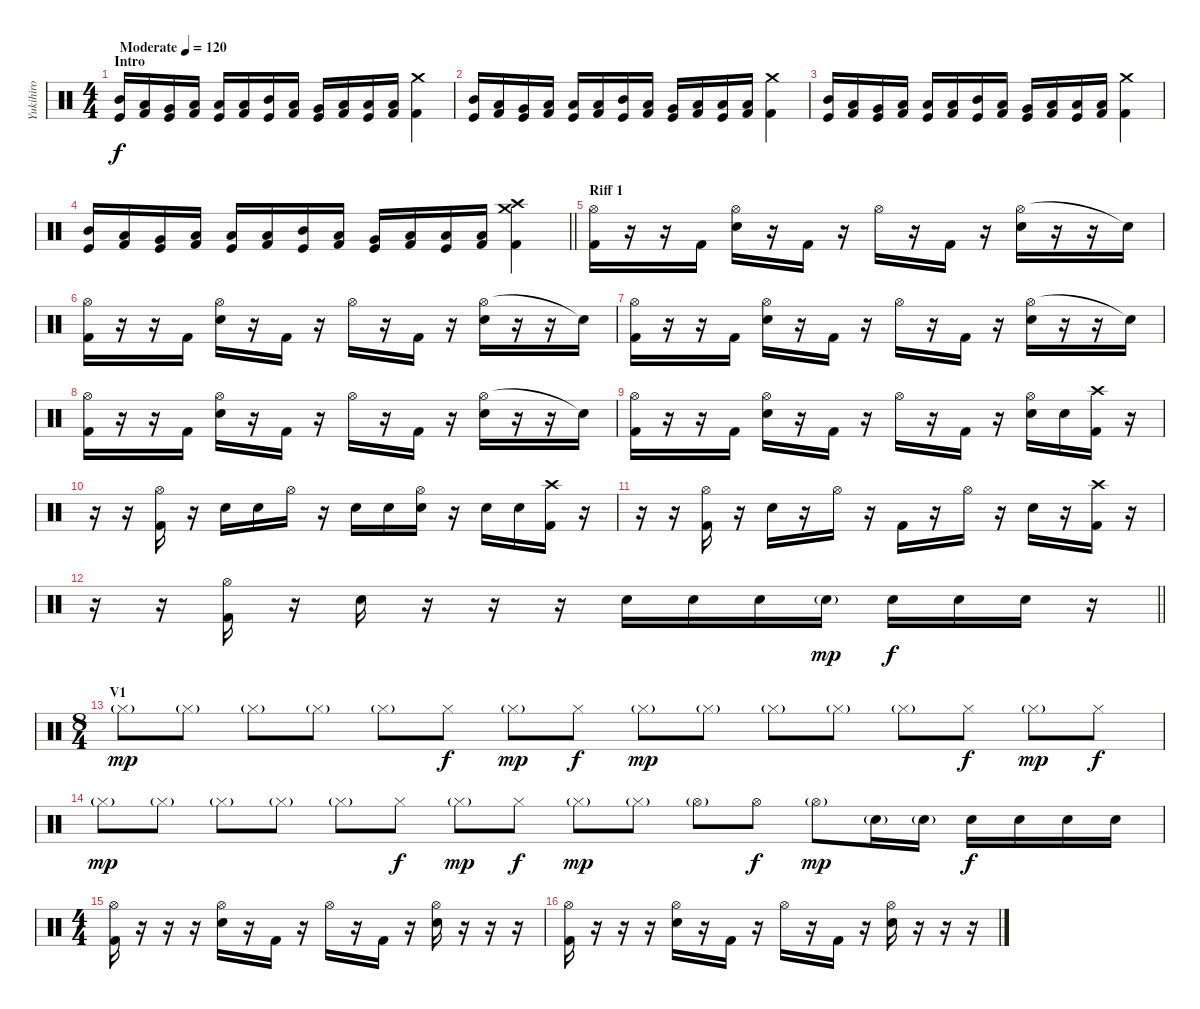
\track ("Yukihiro" "Yukihiro") {instrument percussion}
\staff {score}
\articulation defaults
\ts (4 4)
\section ("" "Intro")
\tempo (120 "Moderate")
\clef neutral
\ks c
("Mid Tom (hit)" "Kick (hit)").16{dy f} ("Low Tom (hit)" "Kick (hit) 2").16 ("Very Low Tom (hit)" "Kick (hit)").16 ("Low Floor Tom (hit)" "Kick (hit) 2").16 ("Low Floor Tom (hit)" "Kick (hit)").16 ("Low Floor Tom (hit)" "Kick (hit) 2").16 ("Mid Tom (hit)" "Kick (hit)").16 ("Low Tom (hit)" "Kick (hit) 2").16 ("Very Low Tom (hit)" "Kick (hit)").16 ("Low Floor Tom (hit)" "Kick (hit) 2").16 ("Low Floor Tom (hit)" "Kick (hit)").16 ("Low Floor Tom (hit)" "Kick (hit) 2").16 ("Crash medium (hit)" "Kick (hit) 2").4 |
("Mid Tom (hit)" "Kick (hit)").16 ("Low Tom (hit)" "Kick (hit) 2").16 ("Very Low Tom (hit)" "Kick (hit)").16 ("Low Floor Tom (hit)" "Kick (hit) 2").16 ("Low Floor Tom (hit)" "Kick (hit)").16 ("Low Floor Tom (hit)" "Kick (hit) 2").16 ("Mid Tom (hit)" "Kick (hit)").16 ("Low Tom (hit)" "Kick (hit) 2").16 ("Very Low Tom (hit)" "Kick (hit)").16 ("Low Floor Tom (hit)" "Kick (hit) 2").16 ("Low Floor Tom (hit)" "Kick (hit)").16 ("Low Floor Tom (hit)" "Kick (hit) 2").16 ("Crash medium (hit)" "Kick (hit) 2").4 |
("Mid Tom (hit)" "Kick (hit)").16 ("Low Tom (hit)" "Kick (hit) 2").16 ("Very Low Tom (hit)" "Kick (hit)").16 ("Low Floor Tom (hit)" "Kick (hit) 2").16 ("Low Floor Tom (hit)" "Kick (hit)").16 ("Low Floor Tom (hit)" "Kick (hit) 2").16 ("Mid Tom (hit)" "Kick (hit)").16 ("Low Tom (hit)" "Kick (hit) 2").16 ("Very Low Tom (hit)" "Kick (hit)").16 ("Low Floor Tom (hit)" "Kick (hit) 2").16 ("Low Floor Tom (hit)" "Kick (hit)").16 ("Low Floor Tom (hit)" "Kick (hit) 2").16 ("Crash medium (hit)" "Kick (hit) 2").4 |
\barLineRight lightlight
("Mid Tom (hit)" "Kick (hit)").16 ("Low Tom (hit)" "Kick (hit) 2").16 ("Very Low Tom (hit)" "Kick (hit)").16 ("Low Floor Tom (hit)" "Kick (hit) 2").16 ("Low Floor Tom (hit)" "Kick (hit)").16 ("Low Floor Tom (hit)" "Kick (hit) 2").16 ("Mid Tom (hit)" "Kick (hit)").16 ("Low Tom (hit)" "Kick (hit) 2").16 ("Very Low Tom (hit)" "Kick (hit)").16 ("Low Floor Tom (hit)" "Kick (hit) 2").16 ("Low Floor Tom (hit)" "Kick (hit)").16 ("Low Floor Tom (hit)" "Kick (hit) 2").16 ("Crash high (hit)" "Crash medium (hit)" "Kick (hit) 2").4 |
\section ("" "Riff 1")
("Hi-Hat (open)" "Kick (hit) 2").16 r.16 r.16 "Kick (hit) 2".16 ("Hi-Hat (open)" "Snare (hit) 2").16 r.16 "Kick (hit) 2".16 r.16 "Hi-Hat (open)".16 r.16 "Kick (hit) 2".16 r.16 ("Hi-Hat (open)" "Snare (hit) 2").16 r.16 r.16 "Snare (hit)"{t}.16 |
("Hi-Hat (open)" "Kick (hit) 2").16 r.16 r.16 "Kick (hit) 2".16 ("Hi-Hat (open)" "Snare (hit) 2").16 r.16 "Kick (hit) 2".16 r.16 "Hi-Hat (open)".16 r.16 "Kick (hit) 2".16 r.16 ("Hi-Hat (open)" "Snare (hit) 2").16 r.16 r.16 "Snare (hit)"{t}.16 |
("Hi-Hat (open)" "Kick (hit) 2").16 r.16 r.16 "Kick (hit) 2".16 ("Hi-Hat (open)" "Snare (hit) 2").16 r.16 "Kick (hit) 2".16 r.16 "Hi-Hat (open)".16 r.16 "Kick (hit) 2".16 r.16 ("Hi-Hat (open)" "Snare (hit) 2").16 r.16 r.16 "Snare (hit)"{t}.16 |
("Hi-Hat (open)" "Kick (hit) 2").16 r.16 r.16 "Kick (hit) 2".16 ("Hi-Hat (open)" "Snare (hit) 2").16 r.16 "Kick (hit) 2".16 r.16 "Hi-Hat (open)".16 r.16 "Kick (hit) 2".16 r.16 ("Hi-Hat (open)" "Snare (hit) 2").16 r.16 r.16 "Snare (hit)"{t}.16 |
("Hi-Hat (open)" "Kick (hit) 2").16 r.16 r.16 "Kick (hit) 2".16 ("Hi-Hat (open)" "Snare (hit) 2").16 r.16 "Kick (hit) 2".16 r.16 "Hi-Hat (open)".16 r.16 "Kick (hit) 2".16 r.16 ("Hi-Hat (open)" "Snare (hit) 2").16 "Snare (hit) 2".16 ("Crash high (hit)" "Kick (hit) 2").16 r.16 |
r.16 r.16 ("Hi-Hat (open)" "Kick (hit) 2").16 r.16 "Snare (hit) 2".16 "Snare (hit) 2".16 "Hi-Hat (open)".16 r.16 "Snare (hit) 2".16 "Snare (hit) 2".16 ("Hi-Hat (open)" "Snare (hit) 2").16 r.16 "Snare (hit) 2".16 "Snare (hit) 2".16 ("Crash high (hit)" "Kick (hit) 2").16 r.16 |
r.16 r.16 ("Hi-Hat (open)" "Kick (hit) 2").16 r.16 "Snare (hit) 2".16 r.16 "Hi-Hat (open)".16 r.16 "Kick (hit) 2".16 r.16 "Hi-Hat (open)".16 r.16 "Snare (hit) 2".16 r.16 ("Crash high (hit)" "Kick (hit) 2").16 r.16 |
\barLineRight lightlight
r.16 r.16 ("Hi-Hat (open)" "Kick (hit) 2").16 r.16 "Snare (hit) 2".16 r.16 r.16 r.16 "Snare (hit) 2".16 "Snare (hit) 2".16 "Snare (hit) 2".16 "Snare (hit) 2"{g}.16{dy mp} "Snare (hit) 2".16{dy f} "Snare (hit) 2".16 "Snare (hit) 2".16 r.16 |
\ts (8 4)
\section ("" "V1")
"Hi-Hat (closed)"{g}.8{dy mp} "Hi-Hat (closed)"{g}.8 "Hi-Hat (closed)"{g}.8 "Hi-Hat (closed)"{g}.8 "Hi-Hat (closed)"{g}.8 "Hi-Hat (closed)".8{dy f} "Hi-Hat (closed)"{g}.8{dy mp} "Hi-Hat (closed)".8{dy f} "Hi-Hat (closed)"{g}.8{dy mp} "Hi-Hat (closed)"{g}.8 "Hi-Hat (closed)"{g}.8 "Hi-Hat (closed)"{g}.8 "Hi-Hat (closed)"{g}.8 "Hi-Hat (closed)".8{dy f} "Hi-Hat (closed)"{g}.8{dy mp} "Hi-Hat (closed)".8{dy f} |
"Hi-Hat (closed)"{g}.8{dy mp} "Hi-Hat (closed)"{g}.8 "Hi-Hat (closed)"{g}.8 "Hi-Hat (closed)"{g}.8 "Hi-Hat (closed)"{g}.8 "Hi-Hat (closed)".8{dy f} "Hi-Hat (closed)"{g}.8{dy mp} "Hi-Hat (closed)".8{dy f} "Hi-Hat (closed)"{g}.8{dy mp} "Hi-Hat (closed)"{g}.8 "Hi-Hat (open)"{g}.8 "Hi-Hat (open)".8{dy f} "Hi-Hat (open)"{g}.8{dy mp} "Snare (hit) 2"{g}.16 "Snare (hit) 2"{g}.16 "Snare (hit) 2".16{dy f} "Snare (hit) 2".16 "Snare (hit) 2".16 "Snare (hit) 2".16 |
\ts (4 4)
("Hi-Hat (open)" "Kick (hit) 2").16 r.16 r.16 r.16 ("Hi-Hat (open)" "Snare (hit) 2").16 r.16 "Kick (hit) 2".16 r.16 "Hi-Hat (open)".16 r.16 "Kick (hit) 2".16 r.16 ("Hi-Hat (open)" "Snare (hit) 2").16 r.16 r.16 r.16 |
("Hi-Hat (open)" "Kick (hit) 2").16 r.16 r.16 r.16 ("Hi-Hat (open)" "Snare (hit) 2").16 r.16 "Kick (hit) 2".16 r.16 "Hi-Hat (open)".16 r.16 "Kick (hit) 2".16 r.16 ("Hi-Hat (open)" "Snare (hit) 2").16 r.16 r.16 r.16
